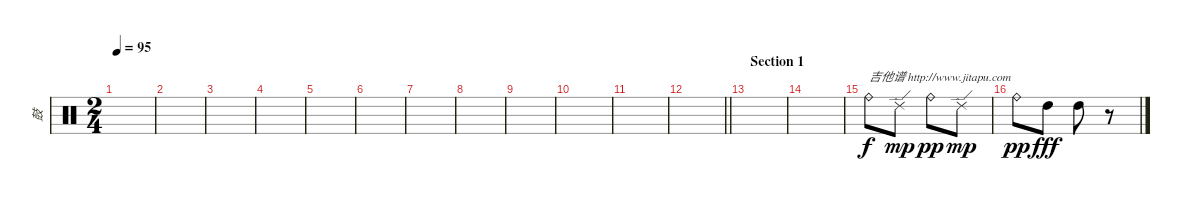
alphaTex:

\track ("鼓" "鼓") {instrument percussion}
\staff {score}
\articulation defaults
\ts (2 4)
\tempo 95
\clef neutral
\ks c
|
|
|
|
|
|
|
|
|
|
|
\barLineRight lightlight
|
\section ("" "Section 1")
|
|
"Ride (bell)".8{txt "吉他谱 http://www.jitapu.com"} "Ride (edge) 2".8{dy mp} "Ride (bell)".8{dy pp} "Ride (edge) 2".8{dy mp} |
"Ride (bell)".8{dy pp} "High Tom (hit)".8{dy fff} "High Tom (hit)".8 r.8
